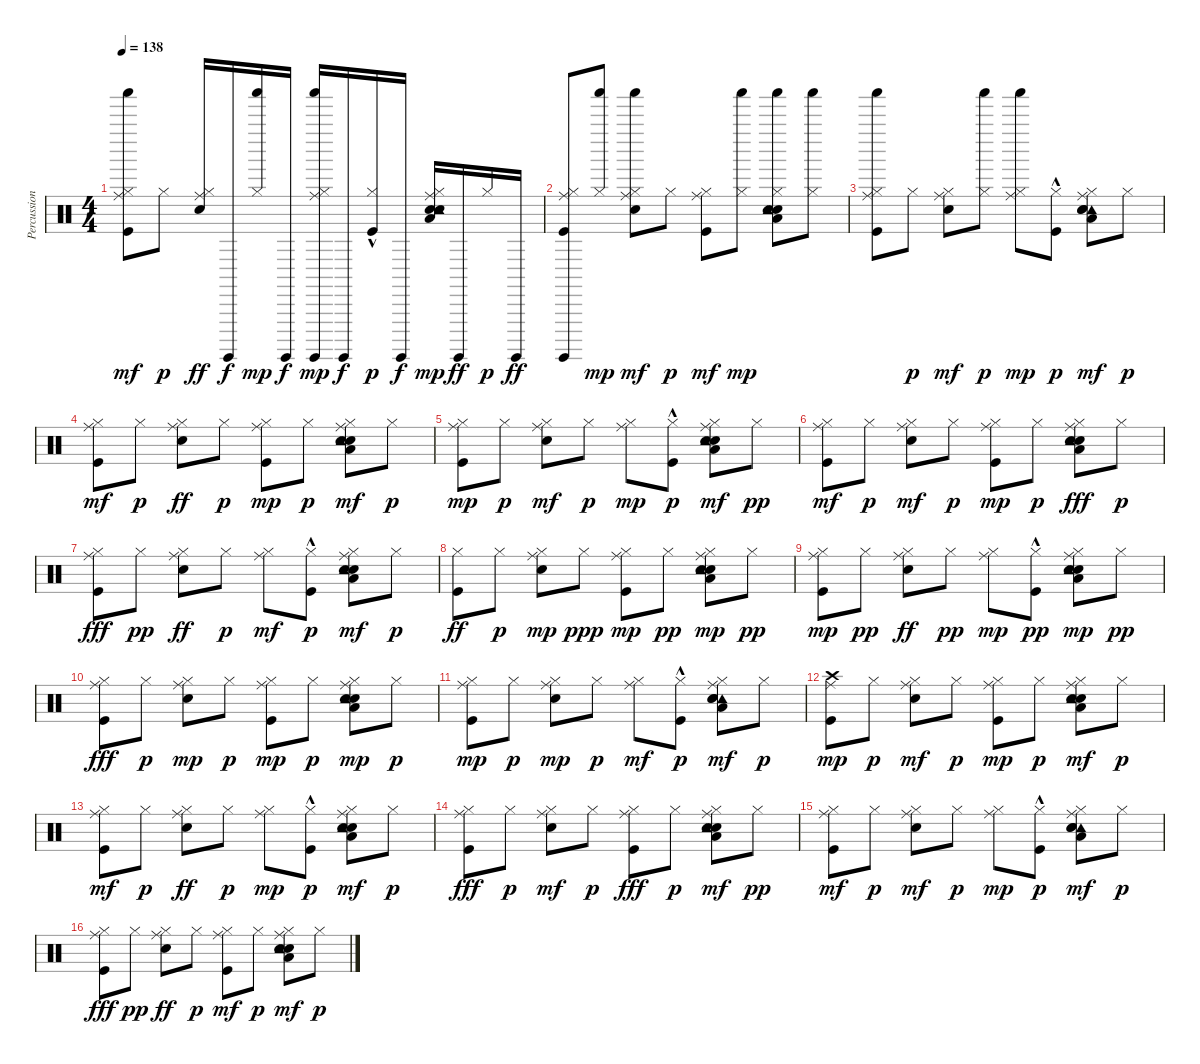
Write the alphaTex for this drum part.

\track ("Percussion" "Percussion") {instrument percussion}
\staff {score}
\articulation defaults
\ts (4 4)
\tempo 138
\clef neutral
\ks c
("Hi-Hat (closed)" "Ride (middle)" "Kick (hit)" "Shaker (hit)").8{dy mf} "Hi-Hat (closed)".8{dy p} ("Hi-Hat (closed)" "Ride (middle)" "Electric Snare (hit)").16{dy ff} "Surdo (hit)".16{dy f} ("Hi-Hat (closed)" "Shaker (hit)").16{dy mp} "Surdo (hit)".16{dy f} ("Shaker (hit)" "Surdo (hit)" "Hi-Hat (closed)" "Ride (middle)").16{dy mp} "Surdo (hit)".16{dy f} ("Kick (hit)"{hac} "Hi-Hat (closed)").16{dy p} "Surdo (hit)".16{dy f} ("Snare (hit) 2" "Hand Clap (hit)" "Tambourine (hit)" "Low Floor Tom (hit)" "Hi-Hat (closed)" "Ride (middle)").16{dy mp} "Surdo (hit)".16{dy ff} "Hi-Hat (closed)".16{dy p} "Surdo (hit)".16{dy ff} |
("Kick (hit)" "Hi-Hat (closed)" "Ride (middle)" "Surdo (hit)").8 ("Hi-Hat (closed)" "Shaker (hit)").8{dy mp} ("Electric Snare (hit)" "Hi-Hat (closed)" "Ride (middle)" "Shaker (hit)").8{dy mf} "Hi-Hat (closed)".8{dy p} ("Kick (hit)" "Hi-Hat (closed)" "Ride (middle)").8{dy mf} ("Hi-Hat (closed)" "Shaker (hit)").8{dy mp} ("Hand Clap (hit)" "Snare (hit) 2" "Low Floor Tom (hit)" "Tambourine (hit)" "Shaker (hit)" "Hi-Hat (closed)").8 ("Hi-Hat (closed)" "Shaker (hit)").8 |
("Kick (hit)" "Shaker (hit)" "Hi-Hat (closed)" "Ride (middle)").8 "Hi-Hat (closed)".8{dy p} ("Electric Snare (hit)" "Hi-Hat (closed)" "Ride (middle)").8{dy mf} ("Shaker (hit)" "Hi-Hat (closed)").8{dy p} ("Shaker (hit)" "Hi-Hat (closed)" "Ride (middle)").8{dy mp} ("Kick (hit)"{hac} "Hi-Hat (closed)").8{dy p} ("Tambourine (hit)" "Hand Clap (hit)" "Low Floor Tom (hit)" "Snare (hit) 2" "Hi-Hat (closed)" "Ride (middle)").8{dy mf} "Hi-Hat (closed)".8{dy p} |
("Kick (hit)" "Hi-Hat (closed)" "Ride (middle)").8{dy mf} "Hi-Hat (closed)".8{dy p} ("Hi-Hat (closed)" "Ride (middle)" "Electric Snare (hit)").8{dy ff} "Hi-Hat (closed)".8{dy p} ("Kick (hit)" "Hi-Hat (closed)" "Ride (middle)").8{dy mp} "Hi-Hat (closed)".8{dy p} ("Snare (hit) 2" "Tambourine (hit)" "Low Floor Tom (hit)" "Hand Clap (hit)" "Hi-Hat (closed)" "Ride (middle)").8{dy mf} "Hi-Hat (closed)".8{dy p} |
("Kick (hit)" "Hi-Hat (closed)" "Ride (middle)").8{dy mp} "Hi-Hat (closed)".8{dy p} ("Electric Snare (hit)" "Hi-Hat (closed)" "Ride (middle)").8{dy mf} "Hi-Hat (closed)".8{dy p} ("Hi-Hat (closed)" "Ride (middle)").8{dy mp} ("Kick (hit)"{hac} "Hi-Hat (closed)").8{dy p} ("Hand Clap (hit)" "Low Floor Tom (hit)" "Snare (hit) 2" "Tambourine (hit)" "Hi-Hat (closed)" "Ride (middle)").8{dy mf} "Hi-Hat (closed)".8{dy pp} |
("Kick (hit)" "Hi-Hat (closed)" "Ride (middle)").8{dy mf} "Hi-Hat (closed)".8{dy p} ("Electric Snare (hit)" "Hi-Hat (closed)" "Ride (middle)").8{dy mf} "Hi-Hat (closed)".8{dy p} ("Kick (hit)" "Hi-Hat (closed)" "Ride (middle)").8{dy mp} "Hi-Hat (closed)".8{dy p} ("Hi-Hat (closed)" "Ride (middle)" "Hand Clap (hit)" "Snare (hit) 2" "Low Floor Tom (hit)" "Tambourine (hit)").8{dy fff} "Hi-Hat (closed)".8{dy p} |
("Hi-Hat (closed)" "Ride (middle)" "Kick (hit)").8{dy fff} "Hi-Hat (closed)".8{dy pp} ("Hi-Hat (closed)" "Ride (middle)" "Electric Snare (hit)").8{dy ff} "Hi-Hat (closed)".8{dy p} ("Hi-Hat (closed)" "Ride (middle)").8{dy mf} ("Kick (hit)"{hac} "Hi-Hat (closed)").8{dy p} ("Snare (hit) 2" "Hand Clap (hit)" "Tambourine (hit)" "Low Floor Tom (hit)" "Hi-Hat (closed)" "Ride (middle)").8{dy mf} "Hi-Hat (closed)".8{dy p} |
("Kick (hit)" "Hi-Hat (closed)").8{dy ff} "Hi-Hat (closed)".8{dy p} ("Electric Snare (hit)" "Hi-Hat (closed)" "Ride (middle)").8{dy mp} "Hi-Hat (closed)".8{dy ppp} ("Kick (hit)" "Hi-Hat (closed)" "Ride (middle)").8{dy mp} "Hi-Hat (closed)".8{dy pp} ("Snare (hit) 2" "Hand Clap (hit)" "Low Floor Tom (hit)" "Tambourine (hit)" "Hi-Hat (closed)" "Ride (middle)").8{dy mp} "Hi-Hat (closed)".8{dy pp} |
("Kick (hit)" "Hi-Hat (closed)" "Ride (middle)").8{dy mp} "Hi-Hat (closed)".8{dy pp} ("Hi-Hat (closed)" "Ride (middle)" "Electric Snare (hit)").8{dy ff} "Hi-Hat (closed)".8{dy pp} ("Hi-Hat (closed)" "Ride (middle)").8{dy mp} ("Kick (hit)"{hac} "Hi-Hat (closed)").8{dy pp} ("Snare (hit) 2" "Hand Clap (hit)" "Tambourine (hit)" "Low Floor Tom (hit)" "Hi-Hat (closed)" "Ride (middle)").8{dy mp} "Hi-Hat (closed)".8{dy pp} |
("Hi-Hat (closed)" "Ride (middle)" "Kick (hit)").8{dy fff} "Hi-Hat (closed)".8{dy p} ("Electric Snare (hit)" "Hi-Hat (closed)" "Ride (middle)").8{dy mp} "Hi-Hat (closed)".8{dy p} ("Kick (hit)" "Hi-Hat (closed)" "Ride (middle)").8{dy mp} "Hi-Hat (closed)".8{dy p} ("Hand Clap (hit)" "Snare (hit) 2" "Low Floor Tom (hit)" "Tambourine (hit)" "Hi-Hat (closed)" "Ride (middle)").8{dy mp} "Hi-Hat (closed)".8{dy p} |
("Kick (hit)" "Hi-Hat (closed)" "Ride (middle)").8{dy mp} "Hi-Hat (closed)".8{dy p} ("Electric Snare (hit)" "Hi-Hat (closed)" "Ride (middle)").8{dy mp} "Hi-Hat (closed)".8{dy p} ("Hi-Hat (closed)" "Ride (middle)").8{dy mf} ("Kick (hit)"{hac} "Hi-Hat (closed)").8{dy p} ("Tambourine (hit)" "Hand Clap (hit)" "Low Floor Tom (hit)" "Snare (hit) 2" "Hi-Hat (closed)" "Ride (middle)").8{dy mf} "Hi-Hat (closed)".8{dy p} |
("Kick (hit)" "Crash high (hit)" "Ride (middle)").8{dy mp} "Hi-Hat (closed)".8{dy p} ("Electric Snare (hit)" "Hi-Hat (closed)" "Ride (middle)").8{dy mf} "Hi-Hat (closed)".8{dy p} ("Kick (hit)" "Hi-Hat (closed)" "Ride (middle)").8{dy mp} "Hi-Hat (closed)".8{dy p} ("Snare (hit) 2" "Hand Clap (hit)" "Low Floor Tom (hit)" "Tambourine (hit)" "Hi-Hat (closed)" "Ride (middle)").8{dy mf} "Hi-Hat (closed)".8{dy p} |
("Kick (hit)" "Hi-Hat (closed)" "Ride (middle)").8{dy mf} "Hi-Hat (closed)".8{dy p} ("Hi-Hat (closed)" "Ride (middle)" "Electric Snare (hit)").8{dy ff} "Hi-Hat (closed)".8{dy p} ("Hi-Hat (closed)" "Ride (middle)").8{dy mp} ("Kick (hit)"{hac} "Hi-Hat (closed)").8{dy p} ("Snare (hit) 2" "Hand Clap (hit)" "Tambourine (hit)" "Low Floor Tom (hit)" "Hi-Hat (closed)" "Ride (middle)").8{dy mf} "Hi-Hat (closed)".8{dy p} |
("Hi-Hat (closed)" "Ride (middle)" "Kick (hit)").8{dy fff} "Hi-Hat (closed)".8{dy p} ("Electric Snare (hit)" "Hi-Hat (closed)" "Ride (middle)").8{dy mf} "Hi-Hat (closed)".8{dy p} ("Hi-Hat (closed)" "Ride (middle)" "Kick (hit)").8{dy fff} "Hi-Hat (closed)".8{dy p} ("Hand Clap (hit)" "Snare (hit) 2" "Low Floor Tom (hit)" "Tambourine (hit)" "Hi-Hat (closed)" "Ride (middle)").8{dy mf} "Hi-Hat (closed)".8{dy pp} |
("Kick (hit)" "Hi-Hat (closed)" "Ride (middle)").8{dy mf} "Hi-Hat (closed)".8{dy p} ("Electric Snare (hit)" "Hi-Hat (closed)" "Ride (middle)").8{dy mf} "Hi-Hat (closed)".8{dy p} ("Hi-Hat (closed)" "Ride (middle)").8{dy mp} ("Kick (hit)"{hac} "Hi-Hat (closed)").8{dy p} ("Tambourine (hit)" "Hand Clap (hit)" "Low Floor Tom (hit)" "Snare (hit) 2" "Hi-Hat (closed)" "Ride (middle)").8{dy mf} "Hi-Hat (closed)".8{dy p} |
("Hi-Hat (closed)" "Ride (middle)" "Kick (hit)").8{dy fff} "Hi-Hat (closed)".8{dy pp} ("Hi-Hat (closed)" "Ride (middle)" "Electric Snare (hit)").8{dy ff} "Hi-Hat (closed)".8{dy p} ("Kick (hit)" "Hi-Hat (closed)" "Ride (middle)").8{dy mf} "Hi-Hat (closed)".8{dy p} ("Snare (hit) 2" "Tambourine (hit)" "Low Floor Tom (hit)" "Hand Clap (hit)" "Hi-Hat (closed)" "Ride (middle)").8{dy mf} "Hi-Hat (closed)".8{dy p}
